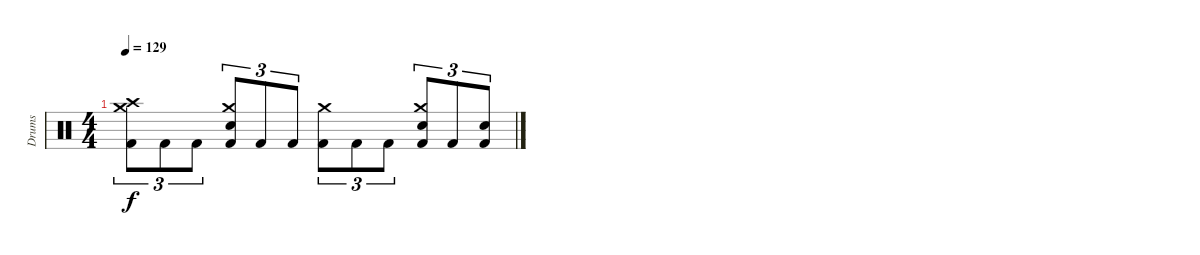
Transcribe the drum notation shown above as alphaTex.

\track ("Drums" "Drums") {instrument percussion}
\staff {score}
\articulation defaults
\ts (4 4)
\tempo 129
\clef neutral
\ks c
("Kick (hit) 2" "Crash medium (hit)" "Crash high (hit)").8{tu (3 2) dy f} "Kick (hit) 2".8{tu (3 2)} "Kick (hit) 2".8{tu (3 2)} ("Kick (hit) 2" "Snare (hit) 2" "Crash medium (hit)").8{tu (3 2)} "Kick (hit) 2".8{tu (3 2)} "Kick (hit) 2".8{tu (3 2)} ("Kick (hit) 2" "Crash medium (hit)").8{tu (3 2)} "Kick (hit) 2".8{tu (3 2)} "Kick (hit) 2".8{tu (3 2)} ("Kick (hit) 2" "Snare (hit) 2" "Crash medium (hit)").8{tu (3 2)} "Kick (hit) 2".8{tu (3 2)} ("Kick (hit) 2" "Snare (hit) 2").8{tu (3 2)}
